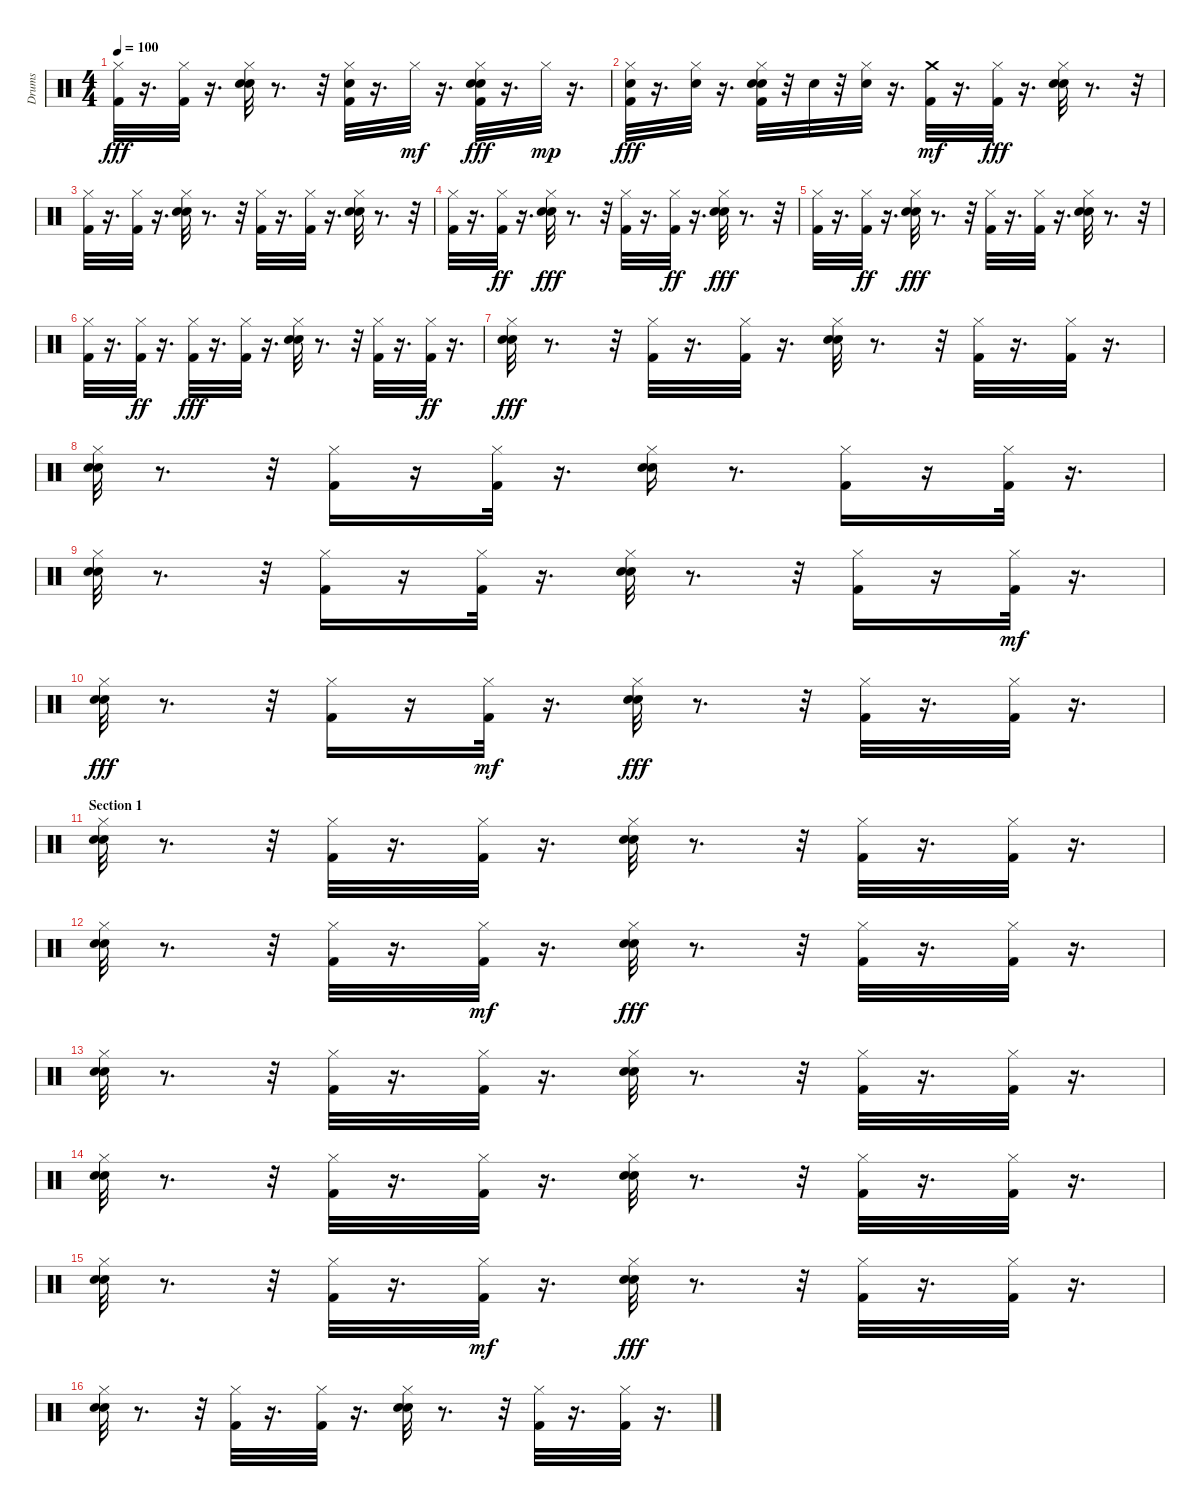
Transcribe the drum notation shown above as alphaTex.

\track ("Drums" "Drums") {instrument percussion}
\staff {score}
\articulation defaults
\ts (4 4)
\tempo 100
\clef neutral
\ks c
("Hi-Hat (closed)" "Kick (hit) 2").32{dy fff} r.16{d} ("Hi-Hat (closed)" "Kick (hit) 2").32 r.16{d} ("Snare (hit) 2" "Hand Clap (hit)" "Hi-Hat (closed)").32 r.8{d} r.32 ("Kick (hit) 2" "Snare (hit) 2" "Hi-Hat (closed)").32 r.16{d} "Hi-Hat (closed)".32{dy mf} r.16{d} ("Hi-Hat (closed)" "Hand Clap (hit)" "Snare (hit) 2" "Kick (hit) 2").32{dy fff} r.16{d} "Hi-Hat (closed)".32{dy mp} r.16{d} |
("Kick (hit) 2" "Hi-Hat (closed)" "Snare (hit) 2").32{dy fff} r.16{d} ("Hi-Hat (closed)" "Snare (hit) 2").32 r.16{d} ("Kick (hit) 2" "Hi-Hat (closed)" "Snare (hit) 2" "Hand Clap (hit)").32 r.32 "Snare (hit) 2".32 r.32 ("Snare (hit) 2" "Hi-Hat (closed)").32 r.16{d} ("Kick (hit) 2" "Crash medium (hit)").32{dy mf} r.16{d} ("Hi-Hat (closed)" "Kick (hit) 2").32{dy fff} r.16{d} ("Hi-Hat (closed)" "Snare (hit) 2" "Hand Clap (hit)").32 r.8{d} r.32 |
("Kick (hit) 2" "Hi-Hat (closed)").32 r.16{d} ("Hi-Hat (closed)" "Kick (hit) 2").32 r.16{d} ("Hand Clap (hit)" "Snare (hit) 2" "Hi-Hat (closed)").32 r.8{d} r.32 ("Kick (hit) 2" "Hi-Hat (closed)").32 r.16{d} ("Hi-Hat (closed)" "Kick (hit) 2").32 r.16{d} ("Hand Clap (hit)" "Snare (hit) 2" "Hi-Hat (closed)").32 r.8{d} r.32 |
("Hi-Hat (closed)" "Kick (hit) 2").32 r.16{d} ("Kick (hit) 2" "Hi-Hat (closed)").32{dy ff} r.16{d} ("Snare (hit) 2" "Hi-Hat (closed)" "Hand Clap (hit)").32{dy fff} r.8{d} r.32 ("Kick (hit) 2" "Hi-Hat (closed)").32 r.16{d} ("Kick (hit) 2" "Hi-Hat (closed)").32{dy ff} r.16{d} ("Hi-Hat (closed)" "Hand Clap (hit)" "Snare (hit) 2").32{dy fff} r.8{d} r.32 |
("Kick (hit) 2" "Hi-Hat (closed)").32 r.16{d} ("Kick (hit) 2" "Hi-Hat (closed)").32{dy ff} r.16{d} ("Hand Clap (hit)" "Snare (hit) 2" "Hi-Hat (closed)").32{dy fff} r.8{d} r.32 ("Kick (hit) 2" "Hi-Hat (closed)").32 r.16{d} ("Hi-Hat (closed)" "Kick (hit) 2").32 r.16{d} ("Hi-Hat (closed)" "Snare (hit) 2" "Hand Clap (hit)").32 r.8{d} r.32 |
("Kick (hit) 2" "Hi-Hat (closed)").32 r.16{d} ("Hi-Hat (closed)" "Kick (hit) 2").32{dy ff} r.16{d} ("Kick (hit) 2" "Hi-Hat (closed)").32{dy fff} r.16{d} ("Hi-Hat (closed)" "Kick (hit) 2").32 r.16{d} ("Hand Clap (hit)" "Snare (hit) 2" "Hi-Hat (closed)").32 r.8{d} r.32 ("Kick (hit) 2" "Hi-Hat (closed)").32 r.16{d} ("Kick (hit) 2" "Hi-Hat (closed)").32{dy ff} r.16{d} |
("Snare (hit) 2" "Hi-Hat (closed)" "Hand Clap (hit)").32{dy fff} r.8{d} r.32 ("Hi-Hat (closed)" "Kick (hit) 2").32 r.16{d} ("Hi-Hat (closed)" "Kick (hit) 2").32 r.16{d} ("Hand Clap (hit)" "Hi-Hat (closed)" "Snare (hit) 2").32 r.8{d} r.32 ("Hi-Hat (closed)" "Kick (hit) 2").32 r.16{d} ("Kick (hit) 2" "Hi-Hat (closed)").32 r.16{d} |
("Snare (hit) 2" "Hand Clap (hit)" "Hi-Hat (closed)").32 r.8{d} r.32 ("Hi-Hat (closed)" "Kick (hit) 2").16 r.16 ("Hi-Hat (closed)" "Kick (hit) 2").32 r.16{d} ("Hi-Hat (closed)" "Hand Clap (hit)" "Snare (hit) 2").16 r.8{d} ("Hi-Hat (closed)" "Kick (hit) 2").16 r.16 ("Hi-Hat (closed)" "Kick (hit) 2").32 r.16{d} |
("Hand Clap (hit)" "Hi-Hat (closed)" "Snare (hit) 2").32 r.8{d} r.32 ("Kick (hit) 2" "Hi-Hat (closed)").16 r.16 ("Hi-Hat (closed)" "Kick (hit) 2").32 r.16{d} ("Hi-Hat (closed)" "Snare (hit) 2" "Hand Clap (hit)").32 r.8{d} r.32 ("Hi-Hat (closed)" "Kick (hit) 2").16 r.16 ("Kick (hit) 2" "Hi-Hat (closed)").32{dy mf} r.16{d} |
("Hand Clap (hit)" "Hi-Hat (closed)" "Snare (hit) 2").32{dy fff} r.8{d} r.32 ("Kick (hit) 2" "Hi-Hat (closed)").16 r.16 ("Kick (hit) 2" "Hi-Hat (closed)").32{dy mf} r.16{d} ("Snare (hit) 2" "Hand Clap (hit)" "Hi-Hat (closed)").32{dy fff} r.8{d} r.32 ("Hi-Hat (closed)" "Kick (hit) 2").32 r.16{d} ("Hi-Hat (closed)" "Kick (hit) 2").32 r.16{d} |
\section ("" "Section 1")
("Snare (hit) 2" "Hi-Hat (closed)" "Hand Clap (hit)").32 r.8{d} r.32 ("Kick (hit) 2" "Hi-Hat (closed)").32 r.16{d} ("Hi-Hat (closed)" "Kick (hit) 2").32 r.16{d} ("Snare (hit) 2" "Hand Clap (hit)" "Hi-Hat (closed)").32 r.8{d} r.32 ("Hi-Hat (closed)" "Kick (hit) 2").32 r.16{d} ("Hi-Hat (closed)" "Kick (hit) 2").32 r.16{d} |
("Hand Clap (hit)" "Snare (hit) 2" "Hi-Hat (closed)").32 r.8{d} r.32 ("Kick (hit) 2" "Hi-Hat (closed)").32 r.16{d} ("Kick (hit) 2" "Hi-Hat (closed)").32{dy mf} r.16{d} ("Snare (hit) 2" "Hi-Hat (closed)" "Hand Clap (hit)").32{dy fff} r.8{d} r.32 ("Kick (hit) 2" "Hi-Hat (closed)").32 r.16{d} ("Hi-Hat (closed)" "Kick (hit) 2").32 r.16{d} |
("Snare (hit) 2" "Hi-Hat (closed)" "Hand Clap (hit)").32 r.8{d} r.32 ("Kick (hit) 2" "Hi-Hat (closed)").32 r.16{d} ("Kick (hit) 2" "Hi-Hat (closed)").32 r.16{d} ("Hi-Hat (closed)" "Snare (hit) 2" "Hand Clap (hit)").32 r.8{d} r.32 ("Hi-Hat (closed)" "Kick (hit) 2").32 r.16{d} ("Hi-Hat (closed)" "Kick (hit) 2").32 r.16{d} |
("Hi-Hat (closed)" "Hand Clap (hit)" "Snare (hit) 2").32 r.8{d} r.32 ("Hi-Hat (closed)" "Kick (hit) 2").32 r.16{d} ("Kick (hit) 2" "Hi-Hat (closed)").32 r.16{d} ("Hi-Hat (closed)" "Snare (hit) 2" "Hand Clap (hit)").32 r.8{d} r.32 ("Kick (hit) 2" "Hi-Hat (closed)").32 r.16{d} ("Hi-Hat (closed)" "Kick (hit) 2").32 r.16{d} |
("Snare (hit) 2" "Hand Clap (hit)" "Hi-Hat (closed)").32 r.8{d} r.32 ("Kick (hit) 2" "Hi-Hat (closed)").32 r.16{d} ("Kick (hit) 2" "Hi-Hat (closed)").32{dy mf} r.16{d} ("Snare (hit) 2" "Hand Clap (hit)" "Hi-Hat (closed)").32{dy fff} r.8{d} r.32 ("Hi-Hat (closed)" "Kick (hit) 2").32 r.16{d} ("Kick (hit) 2" "Hi-Hat (closed)").32 r.16{d} |
("Hi-Hat (closed)" "Snare (hit) 2" "Hand Clap (hit)").32 r.8{d} r.32 ("Kick (hit) 2" "Hi-Hat (closed)").32 r.16{d} ("Hi-Hat (closed)" "Kick (hit) 2").32 r.16{d} ("Hand Clap (hit)" "Hi-Hat (closed)" "Snare (hit) 2").32 r.8{d} r.32 ("Kick (hit) 2" "Hi-Hat (closed)").32 r.16{d} ("Hi-Hat (closed)" "Kick (hit) 2").32 r.16{d}
